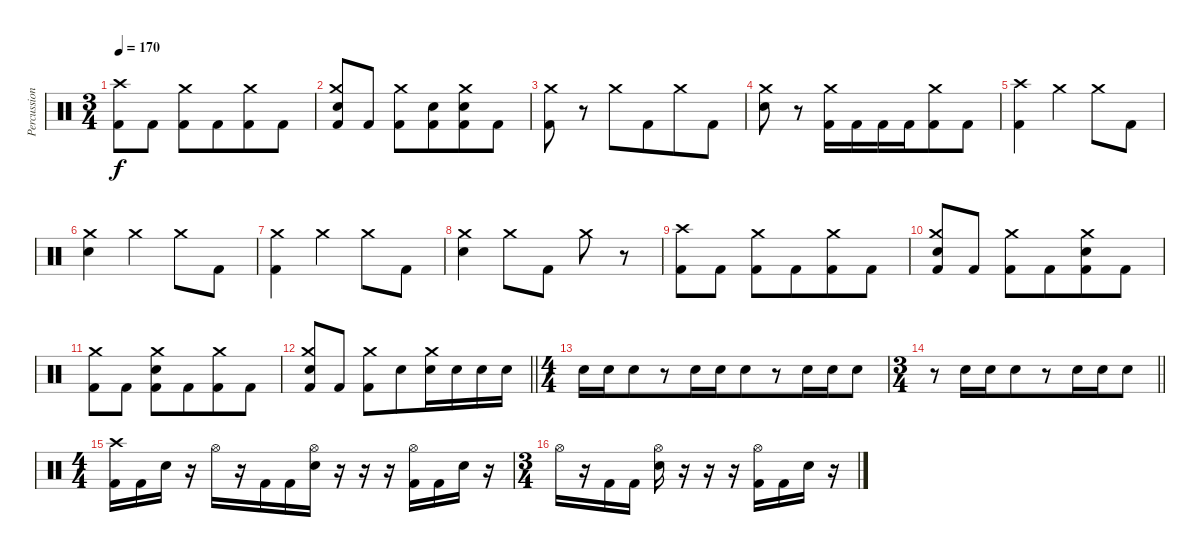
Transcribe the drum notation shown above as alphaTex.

\track ("Percussion" "Percussion") {instrument percussion}
\staff {score}
\articulation defaults
\ts (3 4)
\tempo 170
\clef neutral
\ks c
("Crash high (hit)" "Kick (hit) 2").8{dy f} "Kick (hit) 2".8 ("Crash medium (hit)" "Kick (hit) 2").8{beam merge} "Kick (hit) 2".8{beam merge} ("Crash medium (hit)" "Kick (hit) 2").8{beam merge} "Kick (hit) 2".8 |
("Crash medium (hit)" "Electric Snare (hit)" "Kick (hit) 2").8 "Kick (hit) 2".8 ("Crash medium (hit)" "Kick (hit) 2").8{beam merge} ("Electric Snare (hit)" "Kick (hit) 2").8{beam merge} ("Crash medium (hit)" "Electric Snare (hit)" "Kick (hit) 2").8{beam merge} "Kick (hit) 2".8 |
("Crash medium (hit)" "Kick (hit) 2").8 r.8 "Crash medium (hit)".8{beam merge} "Kick (hit) 2".8{beam merge} "Crash medium (hit)".8{beam merge} "Kick (hit) 2".8 |
("Crash medium (hit)" "Electric Snare (hit)").8 r.8 ("Crash medium (hit)" "Kick (hit) 2").16 "Kick (hit) 2".16 "Kick (hit) 2".16{beam merge} "Kick (hit) 2".16{beam merge} ("Crash medium (hit)" "Kick (hit) 2").8{beam merge} "Kick (hit) 2".8 |
("Crash high (hit)" "Kick (hit) 2").4 "Crash medium (hit)".4 "Crash medium (hit)".8 "Kick (hit) 2".8 |
("Crash medium (hit)" "Electric Snare (hit)").4 "Crash medium (hit)".4 "Crash medium (hit)".8 "Kick (hit) 2".8 |
("Crash medium (hit)" "Kick (hit) 2").4 "Crash medium (hit)".4 "Crash medium (hit)".8 "Kick (hit) 2".8 |
("Crash medium (hit)" "Electric Snare (hit)").4 "Crash medium (hit)".8 "Kick (hit) 2".8 "Crash medium (hit)".8 r.8 |
("Crash high (hit)" "Kick (hit) 2").8 "Kick (hit) 2".8 ("Crash medium (hit)" "Kick (hit) 2").8{beam merge} "Kick (hit) 2".8{beam merge} ("Crash medium (hit)" "Kick (hit) 2").8{beam merge} "Kick (hit) 2".8 |
("Crash medium (hit)" "Electric Snare (hit)" "Kick (hit) 2").8 "Kick (hit) 2".8 ("Crash medium (hit)" "Kick (hit) 2").8{beam merge} "Kick (hit) 2".8{beam merge} ("Crash medium (hit)" "Electric Snare (hit)" "Kick (hit) 2").8{beam merge} "Kick (hit) 2".8 |
("Crash medium (hit)" "Kick (hit) 2").8 "Kick (hit) 2".8 ("Crash medium (hit)" "Electric Snare (hit)" "Kick (hit) 2").8{beam merge} "Kick (hit) 2".8{beam merge} ("Crash medium (hit)" "Kick (hit) 2").8{beam merge} "Kick (hit) 2".8 |
\barLineRight lightlight
("Crash medium (hit)" "Electric Snare (hit)" "Kick (hit) 2").8 "Kick (hit) 2".8 ("Crash medium (hit)" "Kick (hit) 2").8 "Electric Snare (hit)".8{beam merge} ("Crash medium (hit)" "Electric Snare (hit)").16{beam merge} "Electric Snare (hit)".16 "Electric Snare (hit)".16 "Electric Snare (hit)".16 |
\ts (4 4)
\section ("" "")
"Electric Snare (hit)".16 "Electric Snare (hit)".16{beam merge} "Electric Snare (hit)".8{beam merge} r.8{beam merge} "Electric Snare (hit)".16 "Electric Snare (hit)".16{beam merge} "Electric Snare (hit)".8{beam merge} r.8{beam merge} "Electric Snare (hit)".16 "Electric Snare (hit)".16{beam merge} "Electric Snare (hit)".8 |
\ts (3 4)
\barLineRight lightlight
r.8{beam merge} "Electric Snare (hit)".16 "Electric Snare (hit)".16{beam merge} "Electric Snare (hit)".8{beam merge} r.8{beam merge} "Electric Snare (hit)".16 "Electric Snare (hit)".16{beam merge} "Electric Snare (hit)".8 |
\ts (4 4)
\section ("" "")
("Crash high (hit)" "Kick (hit) 2").16 "Kick (hit) 2".16 "Electric Snare (hit)".16 r.16 "Hi-Hat (open)".16 r.16 "Kick (hit) 2".16 "Kick (hit) 2".16{beam merge} ("Hi-Hat (open)" "Electric Snare (hit)").16 r.16{beam merge} r.16 r.16{beam merge} ("Hi-Hat (open)" "Kick (hit) 2").16{beam merge} "Kick (hit) 2".16{beam merge} "Electric Snare (hit)".16 r.16 |
\ts (3 4)
"Hi-Hat (open)".16 r.16 "Kick (hit) 2".16 "Kick (hit) 2".16 ("Hi-Hat (open)" "Electric Snare (hit)").16 r.16 r.16 r.16{beam merge} ("Hi-Hat (open)" "Kick (hit) 2").16 "Kick (hit) 2".16 "Electric Snare (hit)".16{beam merge} r.16
